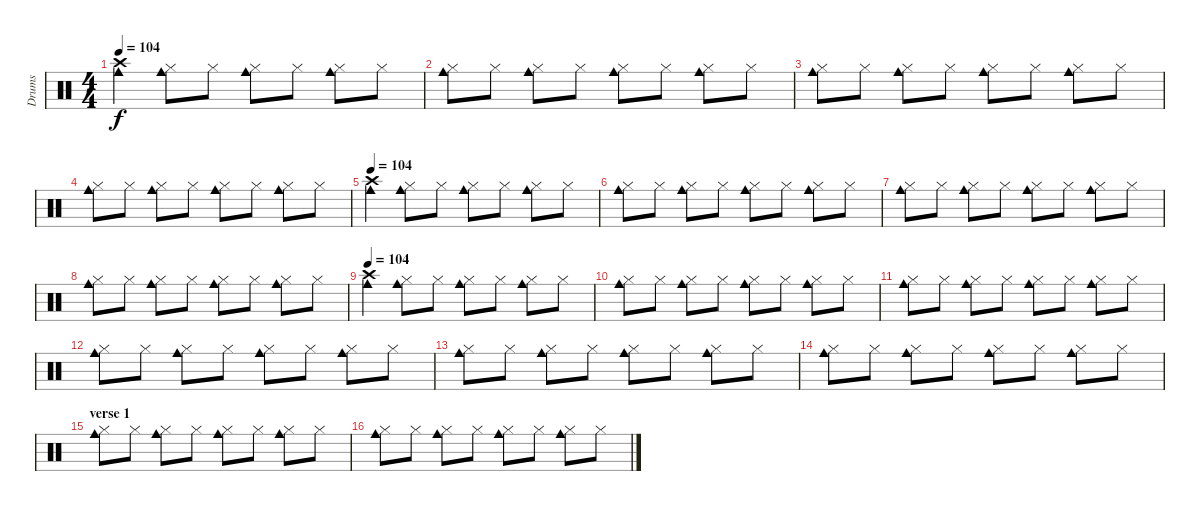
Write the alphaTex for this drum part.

\track ("Drums" "Drums") {instrument percussion}
\staff {score}
\articulation defaults
\ts (4 4)
\tempo 104
\clef neutral
\ks c
("Cowbell medium (hit)" "Crash high (hit)").4{dy f} ("Cowbell medium (hit)" "Hi-Hat (closed)").8 "Hi-Hat (closed)".8 ("Cowbell medium (hit)" "Hi-Hat (closed)").8 "Hi-Hat (closed)".8 ("Cowbell medium (hit)" "Hi-Hat (closed)").8 "Hi-Hat (closed)".8 |
("Cowbell medium (hit)" "Hi-Hat (closed)").8 "Hi-Hat (closed)".8 ("Cowbell medium (hit)" "Hi-Hat (closed)").8 "Hi-Hat (closed)".8 ("Cowbell medium (hit)" "Hi-Hat (closed)").8 "Hi-Hat (closed)".8 ("Cowbell medium (hit)" "Hi-Hat (closed)").8 "Hi-Hat (closed)".8 |
("Cowbell medium (hit)" "Hi-Hat (closed)").8 "Hi-Hat (closed)".8 ("Cowbell medium (hit)" "Hi-Hat (closed)").8 "Hi-Hat (closed)".8 ("Cowbell medium (hit)" "Hi-Hat (closed)").8 "Hi-Hat (closed)".8 ("Cowbell medium (hit)" "Hi-Hat (closed)").8 "Hi-Hat (closed)".8 |
("Cowbell medium (hit)" "Hi-Hat (closed)").8 "Hi-Hat (closed)".8 ("Cowbell medium (hit)" "Hi-Hat (closed)").8 "Hi-Hat (closed)".8 ("Cowbell medium (hit)" "Hi-Hat (closed)").8 "Hi-Hat (closed)".8 ("Cowbell medium (hit)" "Hi-Hat (closed)").8 "Hi-Hat (closed)".8 |
\tempo 104
("Cowbell medium (hit)" "Crash high (hit)").4 ("Cowbell medium (hit)" "Hi-Hat (closed)").8 "Hi-Hat (closed)".8 ("Cowbell medium (hit)" "Hi-Hat (closed)").8 "Hi-Hat (closed)".8 ("Cowbell medium (hit)" "Hi-Hat (closed)").8 "Hi-Hat (closed)".8 |
("Cowbell medium (hit)" "Hi-Hat (closed)").8 "Hi-Hat (closed)".8 ("Cowbell medium (hit)" "Hi-Hat (closed)").8 "Hi-Hat (closed)".8 ("Cowbell medium (hit)" "Hi-Hat (closed)").8 "Hi-Hat (closed)".8 ("Cowbell medium (hit)" "Hi-Hat (closed)").8 "Hi-Hat (closed)".8 |
("Cowbell medium (hit)" "Hi-Hat (closed)").8 "Hi-Hat (closed)".8 ("Cowbell medium (hit)" "Hi-Hat (closed)").8 "Hi-Hat (closed)".8 ("Cowbell medium (hit)" "Hi-Hat (closed)").8 "Hi-Hat (closed)".8 ("Cowbell medium (hit)" "Hi-Hat (closed)").8 "Hi-Hat (closed)".8 |
("Cowbell medium (hit)" "Hi-Hat (closed)").8 "Hi-Hat (closed)".8 ("Cowbell medium (hit)" "Hi-Hat (closed)").8 "Hi-Hat (closed)".8 ("Cowbell medium (hit)" "Hi-Hat (closed)").8 "Hi-Hat (closed)".8 ("Cowbell medium (hit)" "Hi-Hat (closed)").8 "Hi-Hat (closed)".8 |
\tempo 104
("Cowbell medium (hit)" "Crash high (hit)").4 ("Cowbell medium (hit)" "Hi-Hat (closed)").8 "Hi-Hat (closed)".8 ("Cowbell medium (hit)" "Hi-Hat (closed)").8 "Hi-Hat (closed)".8 ("Cowbell medium (hit)" "Hi-Hat (closed)").8 "Hi-Hat (closed)".8 |
("Cowbell medium (hit)" "Hi-Hat (closed)").8 "Hi-Hat (closed)".8 ("Cowbell medium (hit)" "Hi-Hat (closed)").8 "Hi-Hat (closed)".8 ("Cowbell medium (hit)" "Hi-Hat (closed)").8 "Hi-Hat (closed)".8 ("Cowbell medium (hit)" "Hi-Hat (closed)").8 "Hi-Hat (closed)".8 |
("Cowbell medium (hit)" "Hi-Hat (closed)").8 "Hi-Hat (closed)".8 ("Cowbell medium (hit)" "Hi-Hat (closed)").8 "Hi-Hat (closed)".8 ("Cowbell medium (hit)" "Hi-Hat (closed)").8 "Hi-Hat (closed)".8 ("Cowbell medium (hit)" "Hi-Hat (closed)").8 "Hi-Hat (closed)".8 |
("Cowbell medium (hit)" "Hi-Hat (closed)").8 "Hi-Hat (closed)".8 ("Cowbell medium (hit)" "Hi-Hat (closed)").8 "Hi-Hat (closed)".8 ("Cowbell medium (hit)" "Hi-Hat (closed)").8 "Hi-Hat (closed)".8 ("Cowbell medium (hit)" "Hi-Hat (closed)").8 "Hi-Hat (closed)".8 |
("Cowbell medium (hit)" "Hi-Hat (closed)").8 "Hi-Hat (closed)".8 ("Cowbell medium (hit)" "Hi-Hat (closed)").8 "Hi-Hat (closed)".8 ("Cowbell medium (hit)" "Hi-Hat (closed)").8 "Hi-Hat (closed)".8 ("Cowbell medium (hit)" "Hi-Hat (closed)").8 "Hi-Hat (closed)".8 |
("Cowbell medium (hit)" "Hi-Hat (closed)").8 "Hi-Hat (closed)".8 ("Cowbell medium (hit)" "Hi-Hat (closed)").8 "Hi-Hat (closed)".8 ("Cowbell medium (hit)" "Hi-Hat (closed)").8 "Hi-Hat (closed)".8 ("Cowbell medium (hit)" "Hi-Hat (closed)").8 "Hi-Hat (closed)".8 |
\section ("" "verse 1")
("Cowbell medium (hit)" "Hi-Hat (closed)").8 "Hi-Hat (closed)".8 ("Cowbell medium (hit)" "Hi-Hat (closed)").8 "Hi-Hat (closed)".8 ("Cowbell medium (hit)" "Hi-Hat (closed)").8 "Hi-Hat (closed)".8 ("Cowbell medium (hit)" "Hi-Hat (closed)").8 "Hi-Hat (closed)".8 |
("Cowbell medium (hit)" "Hi-Hat (closed)").8 "Hi-Hat (closed)".8 ("Cowbell medium (hit)" "Hi-Hat (closed)").8 "Hi-Hat (closed)".8 ("Cowbell medium (hit)" "Hi-Hat (closed)").8 "Hi-Hat (closed)".8 ("Cowbell medium (hit)" "Hi-Hat (closed)").8 "Hi-Hat (closed)".8
